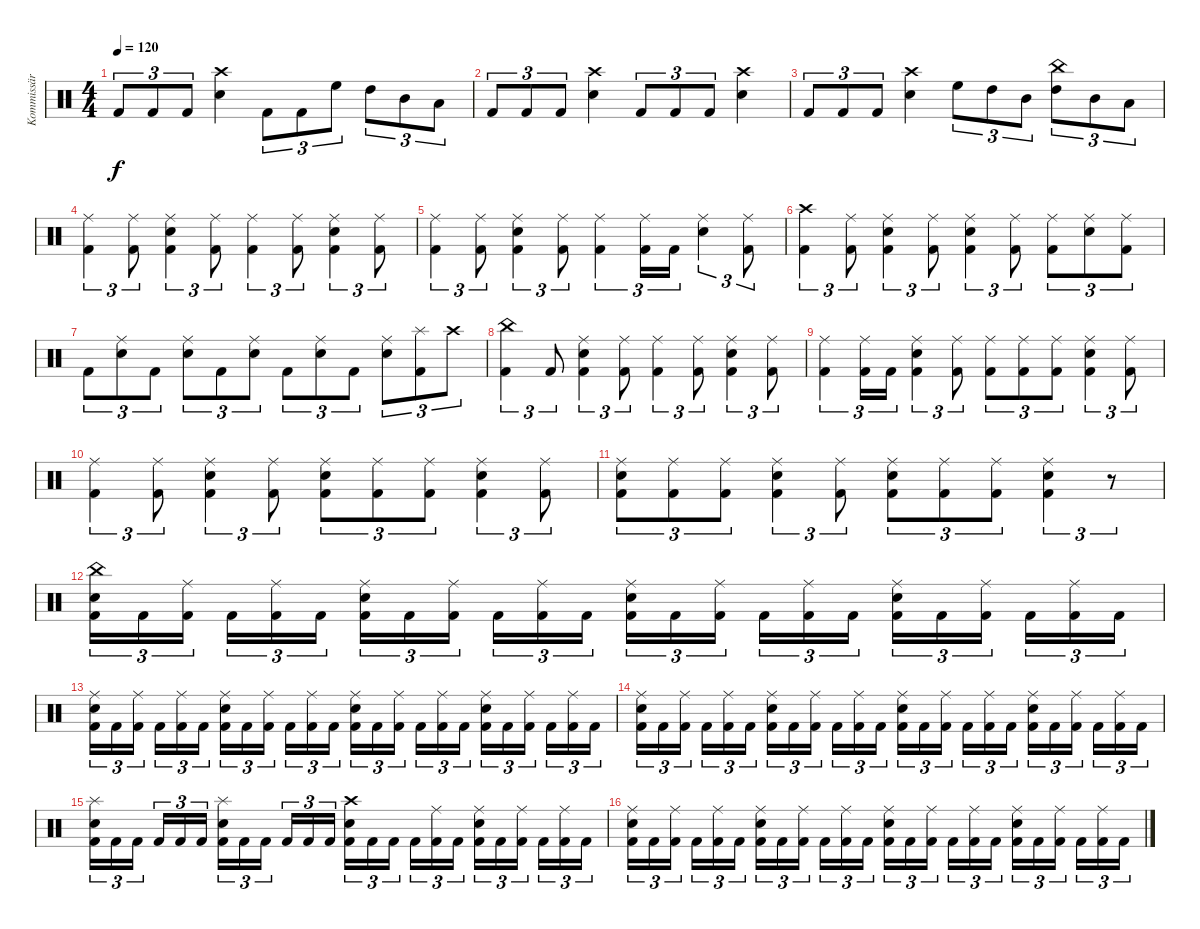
\track ("Kommissär Ogrim" "Kommissär ") {instrument percussion}
\staff {score}
\articulation defaults
\ts (4 4)
\tempo 120
\clef neutral
\ks c "Kick (hit) 2".8{tu (3 2) dy f} "Kick (hit) 2".8{tu (3 2)} "Kick (hit) 2".8{tu (3 2)}
("Snare (hit) 2" "Crash high (hit)").4 "Kick (hit) 2".8{tu (3 2)} "Kick (hit) 2".8{tu (3 2)} "High Floor Tom (hit)".8{tu (3 2)} "High Tom (hit)".8{tu (3 2)} "Mid Tom (hit)".8{tu (3 2)} "Low Tom (hit)".8{tu (3 2)} |
"Kick (hit) 2".8{tu (3 2)} "Kick (hit) 2".8{tu (3 2)} "Kick (hit) 2".8{tu (3 2)} ("Snare (hit) 2" "Crash high (hit)").4 "Kick (hit) 2".8{tu (3 2)} "Kick (hit) 2".8{tu (3 2)} "Kick (hit) 2".8{tu (3 2)} ("Snare (hit) 2" "Crash high (hit)").4 |
"Kick (hit) 2".8{tu (3 2)} "Kick (hit) 2".8{tu (3 2)} "Kick (hit) 2".8{tu (3 2)} ("Snare (hit) 2" "Crash high (hit)").4 "High Floor Tom (hit)".8{tu (3 2)} "High Tom (hit)".8{tu (3 2)} "Mid Tom (hit)".8{tu (3 2)} ("China (hit)" "High Tom (hit)").8{tu (3 2)} "Mid Tom (hit)".8{tu (3 2)} "Low Tom (hit)".8{tu (3 2)} |
("Ride (middle)" "Kick (hit) 2").4{tu (3 2)} ("Ride (middle)" "Kick (hit) 2").8{tu (3 2)} ("Snare (hit) 2" "Ride (middle)" "Kick (hit) 2").4{tu (3 2)} ("Ride (middle)" "Kick (hit) 2").8{tu (3 2)} ("Ride (middle)" "Kick (hit) 2").4{tu (3 2)} ("Ride (middle)" "Kick (hit) 2").8{tu (3 2)} ("Snare (hit) 2" "Ride (middle)" "Kick (hit) 2").4{tu (3 2)} ("Ride (middle)" "Kick (hit) 2").8{tu (3 2)} |
("Ride (middle)" "Kick (hit) 2").4{tu (3 2)} ("Ride (middle)" "Kick (hit) 2").8{tu (3 2)} ("Snare (hit) 2" "Ride (middle)" "Kick (hit) 2").4{tu (3 2)} ("Ride (middle)" "Kick (hit) 2").8{tu (3 2)} ("Ride (middle)" "Kick (hit) 2").4{tu (3 2)} ("Ride (middle)" "Kick (hit) 2").16{tu (3 2)} "Kick (hit) 2".16{tu (3 2)} ("Snare (hit) 2" "Ride (middle)").4{tu (3 2)} ("Ride (middle)" "Kick (hit) 2").8{tu (3 2)} |
("Crash high (hit)" "Kick (hit) 2").4{tu (3 2)} ("Ride (middle)" "Kick (hit) 2").8{tu (3 2)} ("Snare (hit) 2" "Ride (middle)" "Kick (hit) 2").4{tu (3 2)} ("Ride (middle)" "Kick (hit) 2").8{tu (3 2)} ("Snare (hit) 2" "Ride (middle)" "Kick (hit) 2").4{tu (3 2)} ("Ride (middle)" "Kick (hit) 2").8{tu (3 2)} ("Ride (middle)" "Kick (hit) 2").8{tu (3 2)} ("Snare (hit) 2" "Ride (middle)").8{tu (3 2)} ("Ride (middle)" "Kick (hit) 2").8{tu (3 2)} |
"Kick (hit) 2".8{tu (3 2)} ("Snare (hit) 2" "Ride (middle)").8{tu (3 2)} "Kick (hit) 2".8{tu (3 2)} ("Snare (hit) 2" "Ride (middle)").8{tu (3 2)} "Kick (hit) 2".8{tu (3 2)} ("Snare (hit) 2" "Ride (middle)").8{tu (3 2)} "Kick (hit) 2".8{tu (3 2)} ("Snare (hit) 2" "Ride (middle)").8{tu (3 2)} "Kick (hit) 2".8{tu (3 2)} ("Snare (hit) 2" "Ride (middle)").8{tu (3 2)} ("Splash (hit)" "Kick (hit) 2").8{tu (3 2)} "Crash high (hit)".8{tu (3 2)} |
("China (hit)" "Kick (hit) 2").4{tu (3 2)} "Kick (hit) 2".8{tu (3 2)} ("Snare (hit) 2" "Ride (middle)" "Kick (hit) 2").4{tu (3 2)} ("Ride (middle)" "Kick (hit) 2").8{tu (3 2)} ("Ride (middle)" "Kick (hit) 2").4{tu (3 2)} ("Ride (middle)" "Kick (hit) 2").8{tu (3 2)} ("Snare (hit) 2" "Ride (middle)" "Kick (hit) 2").4{tu (3 2)} ("Ride (middle)" "Kick (hit) 2").8{tu (3 2)} |
("Ride (middle)" "Kick (hit) 2").4{tu (3 2)} ("Ride (middle)" "Kick (hit) 2").16{tu (3 2)} "Kick (hit) 2".16{tu (3 2)} ("Snare (hit) 2" "Ride (middle)" "Kick (hit) 2").4{tu (3 2)} ("Ride (middle)" "Kick (hit) 2").8{tu (3 2)} ("Ride (middle)" "Kick (hit) 2").8{tu (3 2)} ("Ride (middle)" "Kick (hit) 2").8{tu (3 2)} ("Ride (middle)" "Kick (hit) 2").8{tu (3 2)} ("Snare (hit) 2" "Ride (middle)" "Kick (hit) 2").4{tu (3 2)} ("Ride (middle)" "Kick (hit) 2").8{tu (3 2)} |
("Ride (middle)" "Kick (hit) 2").4{tu (3 2)} ("Ride (middle)" "Kick (hit) 2").8{tu (3 2)} ("Snare (hit) 2" "Ride (middle)" "Kick (hit) 2").4{tu (3 2)} ("Ride (middle)" "Kick (hit) 2").8{tu (3 2)} ("Snare (hit) 2" "Ride (middle)" "Kick (hit) 2").8{tu (3 2)} ("Ride (middle)" "Kick (hit) 2").8{tu (3 2)} ("Ride (middle)" "Kick (hit) 2").8{tu (3 2)} ("Snare (hit) 2" "Ride (middle)" "Kick (hit) 2").4{tu (3 2)} ("Ride (middle)" "Kick (hit) 2").8{tu (3 2)} |
("Snare (hit) 2" "Ride (middle)" "Kick (hit) 2").8{tu (3 2)} ("Ride (middle)" "Kick (hit) 2").8{tu (3 2)} ("Ride (middle)" "Kick (hit) 2").8{tu (3 2)} ("Snare (hit) 2" "Ride (middle)" "Kick (hit) 2").4{tu (3 2)} ("Ride (middle)" "Kick (hit) 2").8{tu (3 2)} ("Snare (hit) 2" "Ride (middle)" "Kick (hit) 2").8{tu (3 2)} ("Ride (middle)" "Kick (hit) 2").8{tu (3 2)} ("Ride (middle)" "Kick (hit) 2").8{tu (3 2)} ("Snare (hit) 2" "Ride (middle)" "Kick (hit) 2").4{tu (3 2)} r.8{tu (3 2)} |
("Snare (hit) 2" "China (hit)" "Kick (hit) 2").16{tu (3 2)} "Kick (hit) 2".16{tu (3 2)} ("Ride (middle)" "Kick (hit) 2").16{tu (3 2)} "Kick (hit) 2".16{tu (3 2)} ("Ride (middle)" "Kick (hit) 2").16{tu (3 2)} "Kick (hit) 2".16{tu (3 2)} ("Snare (hit) 2" "Ride (middle)" "Kick (hit) 2").16{tu (3 2)} "Kick (hit) 2".16{tu (3 2)} ("Ride (middle)" "Kick (hit) 2").16{tu (3 2)} "Kick (hit) 2".16{tu (3 2)} ("Ride (middle)" "Kick (hit) 2").16{tu (3 2)} "Kick (hit) 2".16{tu (3 2)} ("Snare (hit) 2" "Ride (middle)" "Kick (hit) 2").16{tu (3 2)} "Kick (hit) 2".16{tu (3 2)} ("Ride (middle)" "Kick (hit) 2").16{tu (3 2)} "Kick (hit) 2".16{tu (3 2)} ("Ride (middle)" "Kick (hit) 2").16{tu (3 2)} "Kick (hit) 2".16{tu (3 2)} ("Snare (hit) 2" "Ride (middle)" "Kick (hit) 2").16{tu (3 2)} "Kick (hit) 2".16{tu (3 2)} ("Ride (middle)" "Kick (hit) 2").16{tu (3 2)} "Kick (hit) 2".16{tu (3 2)} ("Ride (middle)" "Kick (hit) 2").16{tu (3 2)} "Kick (hit) 2".16{tu (3 2)} |
("Snare (hit) 2" "Ride (middle)" "Kick (hit) 2").16{tu (3 2)} "Kick (hit) 2".16{tu (3 2)} ("Ride (middle)" "Kick (hit) 2").16{tu (3 2)} "Kick (hit) 2".16{tu (3 2)} ("Ride (middle)" "Kick (hit) 2").16{tu (3 2)} "Kick (hit) 2".16{tu (3 2)} ("Snare (hit) 2" "Ride (middle)" "Kick (hit) 2").16{tu (3 2)} "Kick (hit) 2".16{tu (3 2)} ("Ride (middle)" "Kick (hit) 2").16{tu (3 2)} "Kick (hit) 2".16{tu (3 2)} ("Ride (middle)" "Kick (hit) 2").16{tu (3 2)} "Kick (hit) 2".16{tu (3 2)} ("Snare (hit) 2" "Ride (middle)" "Kick (hit) 2").16{tu (3 2)} "Kick (hit) 2".16{tu (3 2)} ("Ride (middle)" "Kick (hit) 2").16{tu (3 2)} "Kick (hit) 2".16{tu (3 2)} ("Ride (middle)" "Kick (hit) 2").16{tu (3 2)} "Kick (hit) 2".16{tu (3 2)} ("Snare (hit) 2" "Ride (middle)" "Kick (hit) 2").16{tu (3 2)} "Kick (hit) 2".16{tu (3 2)} ("Ride (middle)" "Kick (hit) 2").16{tu (3 2)} "Kick (hit) 2".16{tu (3 2)} ("Ride (middle)" "Kick (hit) 2").16{tu (3 2)} "Kick (hit) 2".16{tu (3 2)} |
("Snare (hit) 2" "Ride (middle)" "Kick (hit) 2").16{tu (3 2)} "Kick (hit) 2".16{tu (3 2)} ("Ride (middle)" "Kick (hit) 2").16{tu (3 2)} "Kick (hit) 2".16{tu (3 2)} ("Ride (middle)" "Kick (hit) 2").16{tu (3 2)} "Kick (hit) 2".16{tu (3 2)} ("Snare (hit) 2" "Ride (middle)" "Kick (hit) 2").16{tu (3 2)} "Kick (hit) 2".16{tu (3 2)} ("Ride (middle)" "Kick (hit) 2").16{tu (3 2)} "Kick (hit) 2".16{tu (3 2)} ("Ride (middle)" "Kick (hit) 2").16{tu (3 2)} "Kick (hit) 2".16{tu (3 2)} ("Snare (hit) 2" "Ride (middle)" "Kick (hit) 2").16{tu (3 2)} "Kick (hit) 2".16{tu (3 2)} ("Ride (middle)" "Kick (hit) 2").16{tu (3 2)} "Kick (hit) 2".16{tu (3 2)} ("Ride (middle)" "Kick (hit) 2").16{tu (3 2)} "Kick (hit) 2".16{tu (3 2)} ("Snare (hit) 2" "Ride (middle)" "Kick (hit) 2").16{tu (3 2)} "Kick (hit) 2".16{tu (3 2)} ("Ride (middle)" "Kick (hit) 2").16{tu (3 2)} "Kick (hit) 2".16{tu (3 2)} ("Ride (middle)" "Kick (hit) 2").16{tu (3 2)} "Kick (hit) 2".16{tu (3 2)} |
("Snare (hit) 2" "Splash (hit)" "Kick (hit) 2").16{tu (3 2)} "Kick (hit) 2".16{tu (3 2)} "Kick (hit) 2".16{tu (3 2)} "Kick (hit) 2".16{tu (3 2)} "Kick (hit) 2".16{tu (3 2)} "Kick (hit) 2".16{tu (3 2)} ("Snare (hit) 2" "Splash (hit)" "Kick (hit) 2").16{tu (3 2)} "Kick (hit) 2".16{tu (3 2)} "Kick (hit) 2".16{tu (3 2)} "Kick (hit) 2".16{tu (3 2)} "Kick (hit) 2".16{tu (3 2)} "Kick (hit) 2".16{tu (3 2)} ("Snare (hit) 2" "Crash high (hit)" "Kick (hit) 2").16{tu (3 2)} "Kick (hit) 2".16{tu (3 2)} "Kick (hit) 2".16{tu (3 2)} "Kick (hit) 2".16{tu (3 2)} ("Ride (middle)" "Kick (hit) 2").16{tu (3 2)} "Kick (hit) 2".16{tu (3 2)} ("Snare (hit) 2" "Ride (middle)" "Kick (hit) 2").16{tu (3 2)} "Kick (hit) 2".16{tu (3 2)} ("Ride (middle)" "Kick (hit) 2").16{tu (3 2)} "Kick (hit) 2".16{tu (3 2)} ("Ride (middle)" "Kick (hit) 2").16{tu (3 2)} "Kick (hit) 2".16{tu (3 2)} |
("Snare (hit) 2" "Ride (middle)" "Kick (hit) 2").16{tu (3 2)} "Kick (hit) 2".16{tu (3 2)} ("Ride (middle)" "Kick (hit) 2").16{tu (3 2)} "Kick (hit) 2".16{tu (3 2)} ("Ride (middle)" "Kick (hit) 2").16{tu (3 2)} "Kick (hit) 2".16{tu (3 2)} ("Snare (hit) 2" "Ride (middle)" "Kick (hit) 2").16{tu (3 2)} "Kick (hit) 2".16{tu (3 2)} ("Ride (middle)" "Kick (hit) 2").16{tu (3 2)} "Kick (hit) 2".16{tu (3 2)} ("Ride (middle)" "Kick (hit) 2").16{tu (3 2)} "Kick (hit) 2".16{tu (3 2)} ("Snare (hit) 2" "Ride (middle)" "Kick (hit) 2").16{tu (3 2)} "Kick (hit) 2".16{tu (3 2)} ("Ride (middle)" "Kick (hit) 2").16{tu (3 2)} "Kick (hit) 2".16{tu (3 2)} ("Ride (middle)" "Kick (hit) 2").16{tu (3 2)} "Kick (hit) 2".16{tu (3 2)} ("Snare (hit) 2" "Ride (middle)" "Kick (hit) 2").16{tu (3 2)} "Kick (hit) 2".16{tu (3 2)} ("Ride (middle)" "Kick (hit) 2").16{tu (3 2)} "Kick (hit) 2".16{tu (3 2)} ("Ride (middle)" "Kick (hit) 2").16{tu (3 2)} "Kick (hit) 2".16{tu (3 2)}
